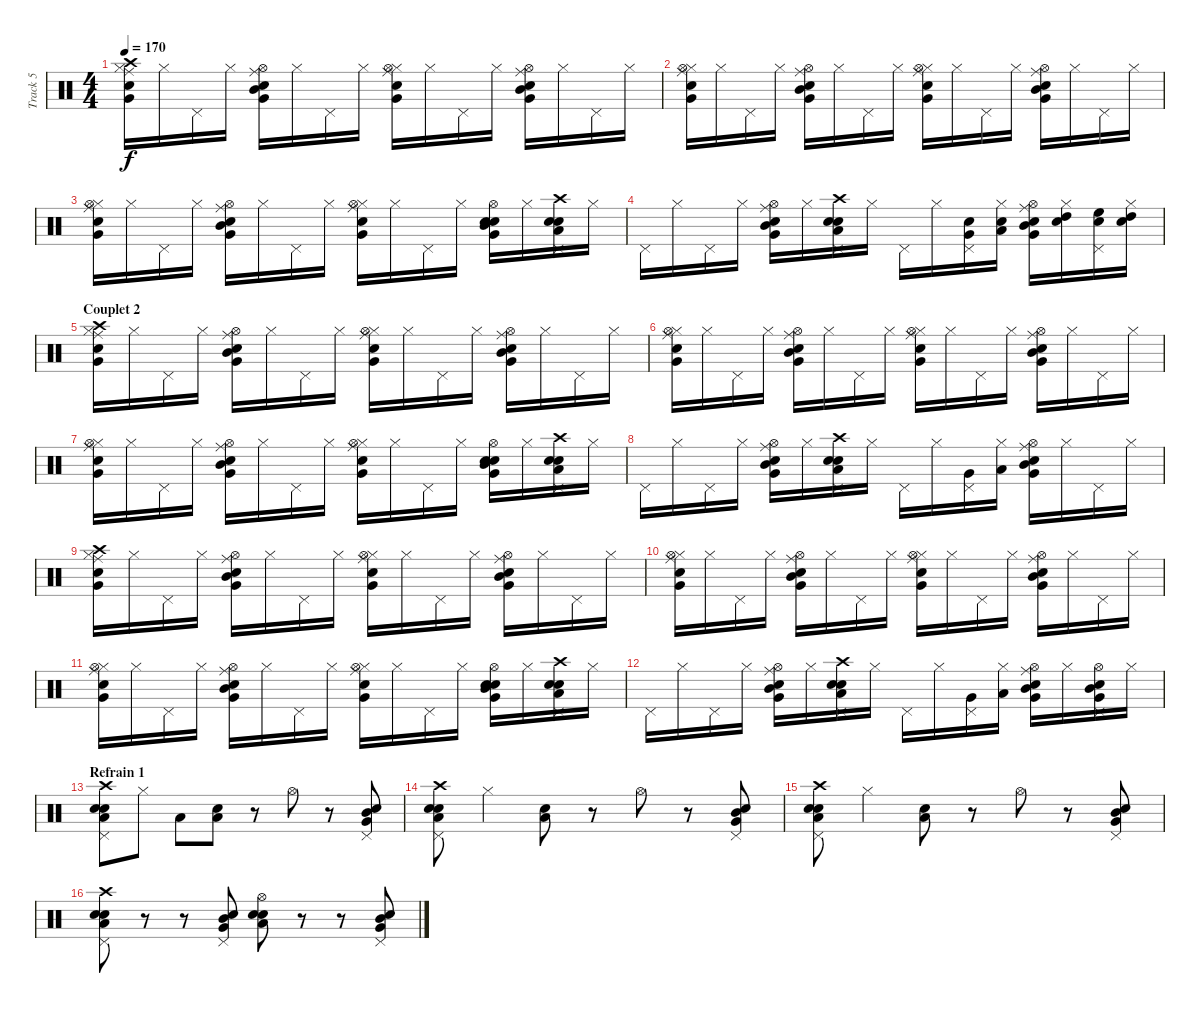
\track ("Track 5" "Track 5") {instrument percussion}
\staff {score}
\articulation defaults
\ts (4 4)
\tempo 170
\clef neutral
\ks c
("Very Low Tom (hit)" "Snare (hit) 2" "Hi-Hat (closed)" "Ride (middle)" "Crash high (hit)").16{dy f} "Hi-Hat (closed)".16 "Pedal Hi-Hat (hit)".16 "Hi-Hat (closed)".16 ("Ride (middle)" "Very Low Tom (hit)" "Mid Tom (hit)" "Electric Snare (hit)" "Hi-Hat (open)").16 "Hi-Hat (closed)".16 "Pedal Hi-Hat (hit)".16 "Hi-Hat (closed)".16 ("Very Low Tom (hit)" "Snare (hit) 2" "Hi-Hat (closed)" "Ride (middle)" "Hi-Hat (open)").16 "Hi-Hat (closed)".16 "Pedal Hi-Hat (hit)".16 "Hi-Hat (closed)".16 ("Ride (middle)" "Very Low Tom (hit)" "Mid Tom (hit)" "Electric Snare (hit)" "Hi-Hat (open)").16 "Hi-Hat (closed)".16 "Pedal Hi-Hat (hit)".16 "Hi-Hat (closed)".16 |
("Very Low Tom (hit)" "Snare (hit) 2" "Hi-Hat (closed)" "Ride (middle)" "Hi-Hat (open)").16 "Hi-Hat (closed)".16 "Pedal Hi-Hat (hit)".16 "Hi-Hat (closed)".16 ("Ride (middle)" "Very Low Tom (hit)" "Mid Tom (hit)" "Electric Snare (hit)" "Hi-Hat (open)").16 "Hi-Hat (closed)".16 "Pedal Hi-Hat (hit)".16 "Hi-Hat (closed)".16 ("Very Low Tom (hit)" "Snare (hit) 2" "Hi-Hat (closed)" "Ride (middle)" "Hi-Hat (open)").16 "Hi-Hat (closed)".16 "Pedal Hi-Hat (hit)".16 "Hi-Hat (closed)".16 ("Ride (middle)" "Very Low Tom (hit)" "Mid Tom (hit)" "Electric Snare (hit)" "Hi-Hat (open)").16 "Hi-Hat (closed)".16 "Pedal Hi-Hat (hit)".16 "Hi-Hat (closed)".16 |
("Very Low Tom (hit)" "Snare (hit) 2" "Hi-Hat (closed)" "Ride (middle)" "Hi-Hat (open)").16 "Hi-Hat (closed)".16 "Pedal Hi-Hat (hit)".16 "Hi-Hat (closed)".16 ("Ride (middle)" "Very Low Tom (hit)" "Mid Tom (hit)" "Electric Snare (hit)" "Hi-Hat (open)").16 "Hi-Hat (closed)".16 "Pedal Hi-Hat (hit)".16 "Hi-Hat (closed)".16 ("Very Low Tom (hit)" "Snare (hit) 2" "Hi-Hat (closed)" "Ride (middle)" "Hi-Hat (open)").16 "Hi-Hat (closed)".16 "Pedal Hi-Hat (hit)".16 "Hi-Hat (closed)".16 ("Hi-Hat (open)" "Very Low Tom (hit)" "Mid Tom (hit)" "Electric Snare (hit)" "Snare (hit) 2").16 "Hi-Hat (closed)".16 ("Pedal Hi-Hat (hit)" "Low Tom (hit)" "Electric Snare (hit)" "Snare (hit) 2" "Crash high (hit)").16 "Hi-Hat (closed)".16 |
"Pedal Hi-Hat (hit)".16 "Hi-Hat (closed)".16 "Pedal Hi-Hat (hit)".16 "Hi-Hat (closed)".16 ("Ride (middle)" "Very Low Tom (hit)" "Mid Tom (hit)" "Electric Snare (hit)" "Hi-Hat (open)").16 "Hi-Hat (closed)".16 ("Pedal Hi-Hat (hit)" "Low Tom (hit)" "Electric Snare (hit)" "Snare (hit) 2" "Crash high (hit)").16 "Hi-Hat (closed)".16 "Pedal Hi-Hat (hit)".16 "Hi-Hat (closed)".16 ("Pedal Hi-Hat (hit)" "Very Low Tom (hit)" "Electric Snare (hit)").16 ("Hi-Hat (closed)" "Low Tom (hit)" "Snare (hit) 2").16 ("Ride (middle)" "Very Low Tom (hit)" "Mid Tom (hit)" "Electric Snare (hit)" "Hi-Hat (open)").16 ("Hi-Hat (closed)" "High Tom (hit)" "Snare (hit) 2").16 ("Pedal Hi-Hat (hit)" "High Floor Tom (hit)" "Electric Snare (hit)").16 ("Hi-Hat (closed)" "High Tom (hit)" "Snare (hit) 2").16 |
\section ("" "Couplet 2")
("Very Low Tom (hit)" "Snare (hit) 2" "Hi-Hat (closed)" "Ride (middle)" "Crash high (hit)").16 "Hi-Hat (closed)".16 "Pedal Hi-Hat (hit)".16 "Hi-Hat (closed)".16 ("Ride (middle)" "Very Low Tom (hit)" "Mid Tom (hit)" "Electric Snare (hit)" "Hi-Hat (open)").16 "Hi-Hat (closed)".16 "Pedal Hi-Hat (hit)".16 "Hi-Hat (closed)".16 ("Very Low Tom (hit)" "Snare (hit) 2" "Hi-Hat (closed)" "Ride (middle)" "Hi-Hat (open)").16 "Hi-Hat (closed)".16 "Pedal Hi-Hat (hit)".16 "Hi-Hat (closed)".16 ("Ride (middle)" "Very Low Tom (hit)" "Mid Tom (hit)" "Electric Snare (hit)" "Hi-Hat (open)").16 "Hi-Hat (closed)".16 "Pedal Hi-Hat (hit)".16 "Hi-Hat (closed)".16 |
("Very Low Tom (hit)" "Snare (hit) 2" "Hi-Hat (closed)" "Ride (middle)" "Hi-Hat (open)").16 "Hi-Hat (closed)".16 "Pedal Hi-Hat (hit)".16 "Hi-Hat (closed)".16 ("Ride (middle)" "Very Low Tom (hit)" "Mid Tom (hit)" "Electric Snare (hit)" "Hi-Hat (open)").16 "Hi-Hat (closed)".16 "Pedal Hi-Hat (hit)".16 "Hi-Hat (closed)".16 ("Very Low Tom (hit)" "Snare (hit) 2" "Hi-Hat (closed)" "Ride (middle)" "Hi-Hat (open)").16 "Hi-Hat (closed)".16 "Pedal Hi-Hat (hit)".16 "Hi-Hat (closed)".16 ("Ride (middle)" "Very Low Tom (hit)" "Mid Tom (hit)" "Electric Snare (hit)" "Hi-Hat (open)").16 "Hi-Hat (closed)".16 "Pedal Hi-Hat (hit)".16 "Hi-Hat (closed)".16 |
("Very Low Tom (hit)" "Snare (hit) 2" "Hi-Hat (closed)" "Ride (middle)" "Hi-Hat (open)").16 "Hi-Hat (closed)".16 "Pedal Hi-Hat (hit)".16 "Hi-Hat (closed)".16 ("Ride (middle)" "Very Low Tom (hit)" "Mid Tom (hit)" "Electric Snare (hit)" "Hi-Hat (open)").16 "Hi-Hat (closed)".16 "Pedal Hi-Hat (hit)".16 "Hi-Hat (closed)".16 ("Very Low Tom (hit)" "Snare (hit) 2" "Hi-Hat (closed)" "Ride (middle)" "Hi-Hat (open)").16 "Hi-Hat (closed)".16 "Pedal Hi-Hat (hit)".16 "Hi-Hat (closed)".16 ("Hi-Hat (open)" "Very Low Tom (hit)" "Mid Tom (hit)" "Electric Snare (hit)" "Snare (hit) 2").16 "Hi-Hat (closed)".16 ("Pedal Hi-Hat (hit)" "Low Tom (hit)" "Electric Snare (hit)" "Snare (hit) 2" "Crash high (hit)").16 "Hi-Hat (closed)".16 |
"Pedal Hi-Hat (hit)".16 "Hi-Hat (closed)".16 "Pedal Hi-Hat (hit)".16 "Hi-Hat (closed)".16 ("Ride (middle)" "Very Low Tom (hit)" "Mid Tom (hit)" "Electric Snare (hit)" "Hi-Hat (open)").16 "Hi-Hat (closed)".16 ("Pedal Hi-Hat (hit)" "Low Tom (hit)" "Electric Snare (hit)" "Snare (hit) 2" "Crash high (hit)").16 "Hi-Hat (closed)".16 "Pedal Hi-Hat (hit)".16 "Hi-Hat (closed)".16 ("Pedal Hi-Hat (hit)" "Very Low Tom (hit)").16 ("Hi-Hat (closed)" "Low Tom (hit)").16 ("Ride (middle)" "Very Low Tom (hit)" "Mid Tom (hit)" "Electric Snare (hit)" "Hi-Hat (open)").16 "Hi-Hat (closed)".16 "Pedal Hi-Hat (hit)".16 "Hi-Hat (closed)".16 |
("Very Low Tom (hit)" "Snare (hit) 2" "Hi-Hat (closed)" "Ride (middle)" "Crash high (hit)").16 "Hi-Hat (closed)".16 "Pedal Hi-Hat (hit)".16 "Hi-Hat (closed)".16 ("Ride (middle)" "Very Low Tom (hit)" "Mid Tom (hit)" "Electric Snare (hit)" "Hi-Hat (open)").16 "Hi-Hat (closed)".16 "Pedal Hi-Hat (hit)".16 "Hi-Hat (closed)".16 ("Very Low Tom (hit)" "Snare (hit) 2" "Hi-Hat (closed)" "Ride (middle)" "Hi-Hat (open)").16 "Hi-Hat (closed)".16 "Pedal Hi-Hat (hit)".16 "Hi-Hat (closed)".16 ("Ride (middle)" "Very Low Tom (hit)" "Mid Tom (hit)" "Electric Snare (hit)" "Hi-Hat (open)").16 "Hi-Hat (closed)".16 "Pedal Hi-Hat (hit)".16 "Hi-Hat (closed)".16 |
("Very Low Tom (hit)" "Snare (hit) 2" "Hi-Hat (closed)" "Ride (middle)" "Hi-Hat (open)").16 "Hi-Hat (closed)".16 "Pedal Hi-Hat (hit)".16 "Hi-Hat (closed)".16 ("Ride (middle)" "Very Low Tom (hit)" "Mid Tom (hit)" "Electric Snare (hit)" "Hi-Hat (open)").16 "Hi-Hat (closed)".16 "Pedal Hi-Hat (hit)".16 "Hi-Hat (closed)".16 ("Very Low Tom (hit)" "Snare (hit) 2" "Hi-Hat (closed)" "Ride (middle)" "Hi-Hat (open)").16 "Hi-Hat (closed)".16 "Pedal Hi-Hat (hit)".16 "Hi-Hat (closed)".16 ("Ride (middle)" "Very Low Tom (hit)" "Mid Tom (hit)" "Electric Snare (hit)" "Hi-Hat (open)").16 "Hi-Hat (closed)".16 "Pedal Hi-Hat (hit)".16 "Hi-Hat (closed)".16 |
("Very Low Tom (hit)" "Snare (hit) 2" "Hi-Hat (closed)" "Ride (middle)" "Hi-Hat (open)").16 "Hi-Hat (closed)".16 "Pedal Hi-Hat (hit)".16 "Hi-Hat (closed)".16 ("Ride (middle)" "Very Low Tom (hit)" "Mid Tom (hit)" "Electric Snare (hit)" "Hi-Hat (open)").16 "Hi-Hat (closed)".16 "Pedal Hi-Hat (hit)".16 "Hi-Hat (closed)".16 ("Very Low Tom (hit)" "Snare (hit) 2" "Hi-Hat (closed)" "Ride (middle)" "Hi-Hat (open)").16 "Hi-Hat (closed)".16 "Pedal Hi-Hat (hit)".16 "Hi-Hat (closed)".16 ("Hi-Hat (open)" "Very Low Tom (hit)" "Mid Tom (hit)" "Electric Snare (hit)" "Snare (hit) 2").16 "Hi-Hat (closed)".16 ("Pedal Hi-Hat (hit)" "Low Tom (hit)" "Electric Snare (hit)" "Snare (hit) 2" "Crash high (hit)").16 "Hi-Hat (closed)".16 |
"Pedal Hi-Hat (hit)".16 "Hi-Hat (closed)".16 "Pedal Hi-Hat (hit)".16 "Hi-Hat (closed)".16 ("Ride (middle)" "Very Low Tom (hit)" "Mid Tom (hit)" "Electric Snare (hit)" "Hi-Hat (open)").16 "Hi-Hat (closed)".16 ("Pedal Hi-Hat (hit)" "Low Tom (hit)" "Electric Snare (hit)" "Snare (hit) 2" "Crash high (hit)").16 "Hi-Hat (closed)".16 "Pedal Hi-Hat (hit)".16 "Hi-Hat (closed)".16 ("Pedal Hi-Hat (hit)" "Very Low Tom (hit)").16 ("Hi-Hat (closed)" "Low Tom (hit)").16 ("Ride (middle)" "Very Low Tom (hit)" "Mid Tom (hit)" "Electric Snare (hit)" "Hi-Hat (open)").16 "Hi-Hat (closed)".16 ("Pedal Hi-Hat (hit)" "Very Low Tom (hit)" "Mid Tom (hit)" "Electric Snare (hit)" "Hi-Hat (open)").16 "Hi-Hat (closed)".16 |
\section ("" "Refrain 1")
("Pedal Hi-Hat (hit)" "Low Tom (hit)" "Electric Snare (hit)" "Snare (hit) 2" "Crash high (hit)").8 "Hi-Hat (closed)".8 "Low Floor Tom (hit)".8 ("Electric Snare (hit)" "Low Tom (hit)").8 r.8 "Hi-Hat (open)".8 r.8 ("Pedal Hi-Hat (hit)" "Very Low Tom (hit)" "Mid Tom (hit)" "Electric Snare (hit)").8 |
("Pedal Hi-Hat (hit)" "Low Tom (hit)" "Electric Snare (hit)" "Snare (hit) 2" "Crash high (hit)").8 "Hi-Hat (closed)".4 ("Electric Snare (hit)" "Low Tom (hit)").8 r.8 "Hi-Hat (open)".8 r.8 ("Pedal Hi-Hat (hit)" "Very Low Tom (hit)" "Mid Tom (hit)" "Electric Snare (hit)").8 |
("Pedal Hi-Hat (hit)" "Low Tom (hit)" "Electric Snare (hit)" "Snare (hit) 2" "Crash high (hit)").8 "Hi-Hat (closed)".4 ("Electric Snare (hit)" "Low Tom (hit)").8 r.8 "Hi-Hat (open)".8 r.8 ("Pedal Hi-Hat (hit)" "Very Low Tom (hit)" "Mid Tom (hit)" "Electric Snare (hit)").8 |
("Pedal Hi-Hat (hit)" "Low Tom (hit)" "Electric Snare (hit)" "Snare (hit) 2" "Crash high (hit)").8 r.8 r.8 ("Pedal Hi-Hat (hit)" "Very Low Tom (hit)" "Mid Tom (hit)" "Electric Snare (hit)").8 ("Low Tom (hit)" "Electric Snare (hit)" "Snare (hit) 2" "Hi-Hat (open)").8 r.8 r.8 ("Pedal Hi-Hat (hit)" "Very Low Tom (hit)" "Mid Tom (hit)" "Electric Snare (hit)").8
